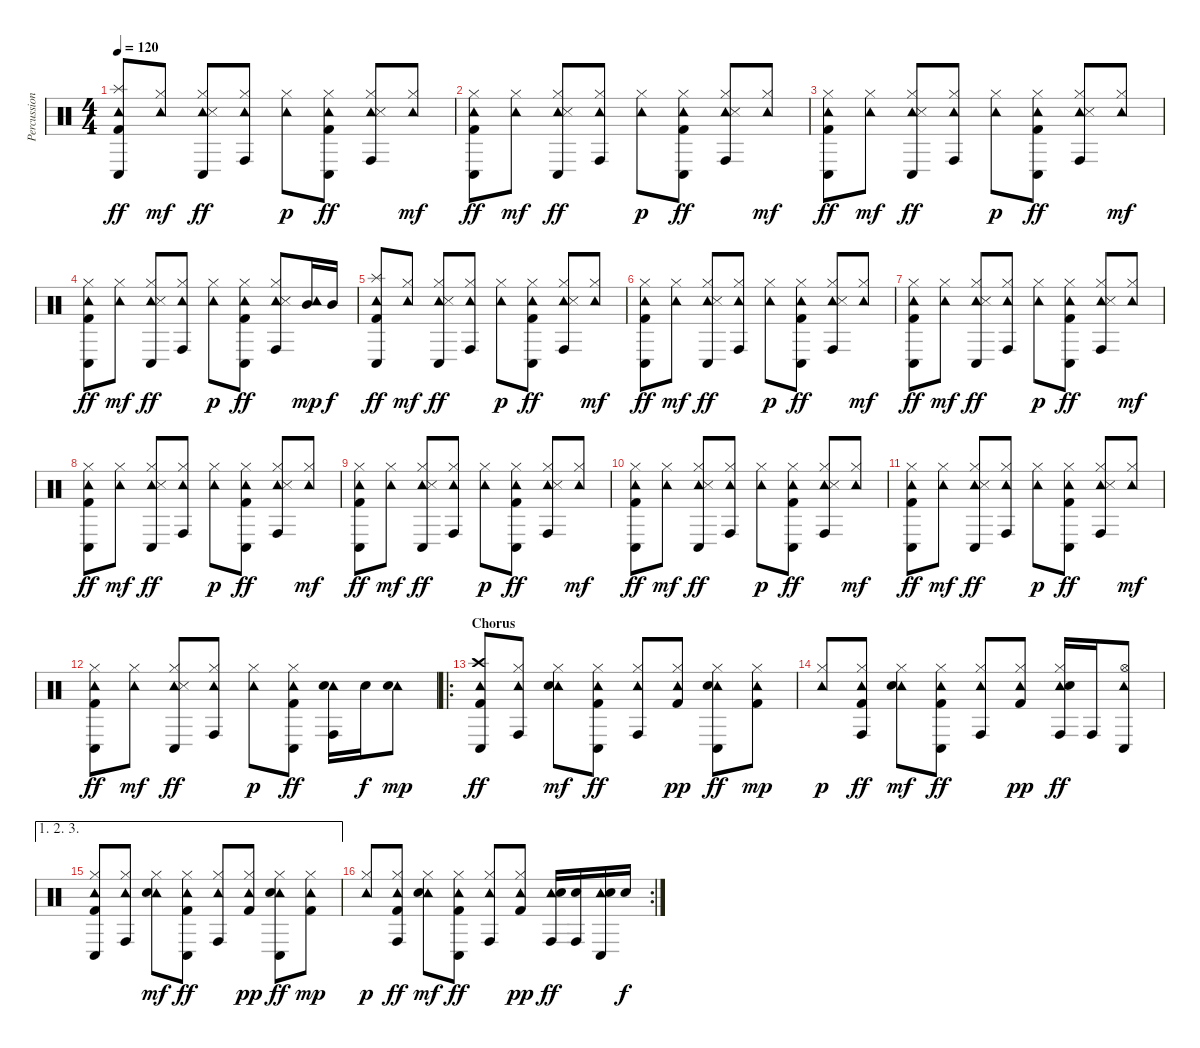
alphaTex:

\track ("Percussion" "Percussion") {instrument percussion}
\staff {score}
\articulation defaults
\ts (4 4)
\tempo 120
\clef neutral
\ks c
("Kick (hit) 2" "Splash (hit)" "Tambourine (hit)" "Conga low (hit)").8{dy ff} ("Tambourine (hit)" "Hi-Hat (closed)").8{dy mf} ("Tambourine (hit)" "Snare (side stick) 3" "Hi-Hat (closed)" "Conga low (hit)").8{dy ff} ("Tambourine (hit)" "Hi-Hat (closed)" "Conga high (hit)").8 ("Tambourine (hit)" "Hi-Hat (closed)").8{dy p} ("Kick (hit) 2" "Tambourine (hit)" "Hi-Hat (closed)" "Conga low (hit)").8{dy ff} ("Tambourine (hit)" "Snare (side stick) 3" "Hi-Hat (closed)" "Conga high (hit)").8 ("Tambourine (hit)" "Hi-Hat (closed)").8{dy mf} |
("Kick (hit) 2" "Tambourine (hit)" "Hi-Hat (closed)" "Conga low (hit)").8{dy ff} ("Tambourine (hit)" "Hi-Hat (closed)").8{dy mf} ("Tambourine (hit)" "Snare (side stick) 3" "Hi-Hat (closed)" "Conga low (hit)").8{dy ff} ("Tambourine (hit)" "Hi-Hat (closed)" "Conga high (hit)").8 ("Tambourine (hit)" "Hi-Hat (closed)").8{dy p} ("Kick (hit) 2" "Tambourine (hit)" "Hi-Hat (closed)" "Conga low (hit)").8{dy ff} ("Tambourine (hit)" "Snare (side stick) 3" "Hi-Hat (closed)" "Conga high (hit)").8 ("Tambourine (hit)" "Hi-Hat (closed)").8{dy mf} |
("Kick (hit) 2" "Tambourine (hit)" "Hi-Hat (closed)" "Conga low (hit)").8{dy ff} ("Tambourine (hit)" "Hi-Hat (closed)").8{dy mf} ("Tambourine (hit)" "Snare (side stick) 3" "Hi-Hat (closed)" "Conga low (hit)").8{dy ff} ("Tambourine (hit)" "Hi-Hat (closed)" "Conga high (hit)").8 ("Tambourine (hit)" "Hi-Hat (closed)").8{dy p} ("Kick (hit) 2" "Tambourine (hit)" "Hi-Hat (closed)" "Conga low (hit)").8{dy ff} ("Tambourine (hit)" "Snare (side stick) 3" "Hi-Hat (closed)" "Conga high (hit)").8 ("Tambourine (hit)" "Hi-Hat (closed)").8{dy mf} |
("Kick (hit) 2" "Tambourine (hit)" "Hi-Hat (closed)" "Conga low (hit)").8{dy ff} ("Tambourine (hit)" "Hi-Hat (closed)").8{dy mf} ("Tambourine (hit)" "Snare (side stick) 3" "Hi-Hat (closed)" "Conga low (hit)").8{dy ff} ("Tambourine (hit)" "Hi-Hat (closed)" "Conga high (hit)").8 ("Tambourine (hit)" "Hi-Hat (closed)").8{dy p} ("Kick (hit) 2" "Tambourine (hit)" "Hi-Hat (closed)" "Conga low (hit)").8{dy ff} ("Tambourine (hit)" "Snare (side stick) 3" "Hi-Hat (closed)" "Conga high (hit)").8 ("Tambourine (hit)" "Mid Tom (hit)").16{dy mp} "Mid Tom (hit)".16{dy f} |
("Kick (hit) 2" "Splash (hit)" "Tambourine (hit)" "Conga low (hit)").8{dy ff} ("Tambourine (hit)" "Hi-Hat (closed)").8{dy mf} ("Tambourine (hit)" "Snare (side stick) 3" "Hi-Hat (closed)" "Conga low (hit)").8{dy ff} ("Tambourine (hit)" "Hi-Hat (closed)" "Conga high (hit)").8 ("Tambourine (hit)" "Hi-Hat (closed)").8{dy p} ("Kick (hit) 2" "Tambourine (hit)" "Hi-Hat (closed)" "Conga low (hit)").8{dy ff} ("Tambourine (hit)" "Snare (side stick) 3" "Hi-Hat (closed)" "Conga high (hit)").8 ("Tambourine (hit)" "Hi-Hat (closed)").8{dy mf} |
("Kick (hit) 2" "Tambourine (hit)" "Hi-Hat (closed)" "Conga low (hit)").8{dy ff} ("Tambourine (hit)" "Hi-Hat (closed)").8{dy mf} ("Tambourine (hit)" "Snare (side stick) 3" "Hi-Hat (closed)" "Conga low (hit)").8{dy ff} ("Tambourine (hit)" "Hi-Hat (closed)" "Conga high (hit)").8 ("Tambourine (hit)" "Hi-Hat (closed)").8{dy p} ("Kick (hit) 2" "Tambourine (hit)" "Hi-Hat (closed)" "Conga low (hit)").8{dy ff} ("Tambourine (hit)" "Snare (side stick) 3" "Hi-Hat (closed)" "Conga high (hit)").8 ("Tambourine (hit)" "Hi-Hat (closed)").8{dy mf} |
("Kick (hit) 2" "Tambourine (hit)" "Hi-Hat (closed)" "Conga low (hit)").8{dy ff} ("Tambourine (hit)" "Hi-Hat (closed)").8{dy mf} ("Tambourine (hit)" "Snare (side stick) 3" "Hi-Hat (closed)" "Conga low (hit)").8{dy ff} ("Tambourine (hit)" "Hi-Hat (closed)" "Conga high (hit)").8 ("Tambourine (hit)" "Hi-Hat (closed)").8{dy p} ("Kick (hit) 2" "Tambourine (hit)" "Hi-Hat (closed)" "Conga low (hit)").8{dy ff} ("Tambourine (hit)" "Snare (side stick) 3" "Hi-Hat (closed)" "Conga high (hit)").8 ("Tambourine (hit)" "Hi-Hat (closed)").8{dy mf} |
("Kick (hit) 2" "Tambourine (hit)" "Hi-Hat (closed)" "Conga low (hit)").8{dy ff} ("Tambourine (hit)" "Hi-Hat (closed)").8{dy mf} ("Tambourine (hit)" "Snare (side stick) 3" "Hi-Hat (closed)" "Conga low (hit)").8{dy ff} ("Tambourine (hit)" "Hi-Hat (closed)" "Conga high (hit)").8 ("Tambourine (hit)" "Hi-Hat (closed)").8{dy p} ("Kick (hit) 2" "Tambourine (hit)" "Hi-Hat (closed)" "Conga low (hit)").8{dy ff} ("Tambourine (hit)" "Snare (side stick) 3" "Hi-Hat (closed)" "Conga high (hit)").8 ("Tambourine (hit)" "Hi-Hat (closed)").8{dy mf} |
("Kick (hit) 2" "Tambourine (hit)" "Hi-Hat (closed)" "Conga low (hit)").8{dy ff} ("Tambourine (hit)" "Hi-Hat (closed)").8{dy mf} ("Tambourine (hit)" "Snare (side stick) 3" "Hi-Hat (closed)" "Conga low (hit)").8{dy ff} ("Tambourine (hit)" "Hi-Hat (closed)" "Conga high (hit)").8 ("Tambourine (hit)" "Hi-Hat (closed)").8{dy p} ("Kick (hit) 2" "Tambourine (hit)" "Hi-Hat (closed)" "Conga low (hit)").8{dy ff} ("Tambourine (hit)" "Snare (side stick) 3" "Hi-Hat (closed)" "Conga high (hit)").8 ("Tambourine (hit)" "Hi-Hat (closed)").8{dy mf} |
("Kick (hit) 2" "Tambourine (hit)" "Hi-Hat (closed)" "Conga low (hit)").8{dy ff} ("Tambourine (hit)" "Hi-Hat (closed)").8{dy mf} ("Tambourine (hit)" "Snare (side stick) 3" "Hi-Hat (closed)" "Conga low (hit)").8{dy ff} ("Tambourine (hit)" "Hi-Hat (closed)" "Conga high (hit)").8 ("Tambourine (hit)" "Hi-Hat (closed)").8{dy p} ("Kick (hit) 2" "Tambourine (hit)" "Hi-Hat (closed)" "Conga low (hit)").8{dy ff} ("Tambourine (hit)" "Snare (side stick) 3" "Hi-Hat (closed)" "Conga high (hit)").8 ("Tambourine (hit)" "Hi-Hat (closed)").8{dy mf} |
("Kick (hit) 2" "Tambourine (hit)" "Hi-Hat (closed)" "Conga low (hit)").8{dy ff} ("Tambourine (hit)" "Hi-Hat (closed)").8{dy mf} ("Tambourine (hit)" "Snare (side stick) 3" "Hi-Hat (closed)" "Conga low (hit)").8{dy ff} ("Tambourine (hit)" "Hi-Hat (closed)" "Conga high (hit)").8 ("Tambourine (hit)" "Hi-Hat (closed)").8{dy p} ("Kick (hit) 2" "Tambourine (hit)" "Hi-Hat (closed)" "Conga low (hit)").8{dy ff} ("Tambourine (hit)" "Snare (side stick) 3" "Hi-Hat (closed)" "Conga high (hit)").8 ("Tambourine (hit)" "Hi-Hat (closed)").8{dy mf} |
("Kick (hit) 2" "Tambourine (hit)" "Hi-Hat (closed)" "Conga low (hit)").8{dy ff} ("Tambourine (hit)" "Hi-Hat (closed)").8{dy mf} ("Tambourine (hit)" "Snare (side stick) 3" "Hi-Hat (closed)" "Conga low (hit)").8{dy ff} ("Tambourine (hit)" "Hi-Hat (closed)" "Conga high (hit)").8 ("Tambourine (hit)" "Hi-Hat (closed)").8{dy p} ("Kick (hit) 2" "Tambourine (hit)" "Hi-Hat (closed)" "Conga low (hit)").8{dy ff} ("Tambourine (hit)" "Snare (hit) 2" "Conga high (hit)").16 "Snare (hit) 2".16{dy f} ("Tambourine (hit)" "Snare (hit) 2").8{dy mp} |
\ro
\section ("" "Chorus")
("Kick (hit) 2" "Crash high (hit)" "Tambourine (hit)" "Conga low (hit)").8{dy ff} ("Tambourine (hit)" "Hi-Hat (closed)" "Conga high (hit)").8 ("Tambourine (hit)" "Snare (hit) 2" "Hi-Hat (closed)").8{dy mf} ("Kick (hit) 2" "Tambourine (hit)" "Hi-Hat (closed)" "Conga low (hit)").8{dy ff} ("Tambourine (hit)" "Hi-Hat (closed)" "Conga high (hit)").8 ("Kick (hit) 2" "Tambourine (hit)" "Hi-Hat (closed)").8{dy pp} ("Tambourine (hit)" "Snare (hit) 2" "Hi-Hat (closed)" "Conga low (hit)").8{dy ff} ("Kick (hit) 2" "Tambourine (hit)" "Hi-Hat (closed)").8{dy mp} |
("Tambourine (hit)" "Hi-Hat (closed)").8{dy p} ("Kick (hit) 2" "Tambourine (hit)" "Hi-Hat (closed)" "Conga high (hit)").8{dy ff} ("Tambourine (hit)" "Snare (hit) 2" "Hi-Hat (closed)").8{dy mf} ("Kick (hit) 2" "Tambourine (hit)" "Hi-Hat (closed)" "Conga low (hit)").8{dy ff} ("Tambourine (hit)" "Hi-Hat (closed)" "Conga high (hit)").8 ("Kick (hit) 2" "Tambourine (hit)" "Hi-Hat (closed)").8{dy pp} ("Tambourine (hit)" "Snare (hit) 2" "Hi-Hat (closed)" "Conga high (hit)").16{dy ff} "Conga high (hit)".16 ("Tambourine (hit)" "Hi-Hat (open)" "Conga low (hit)").8 |
\ae (1 2 3)
("Kick (hit) 2" "Tambourine (hit)" "Hi-Hat (closed)" "Conga low (hit)").8 ("Tambourine (hit)" "Hi-Hat (closed)" "Conga high (hit)").8 ("Tambourine (hit)" "Snare (hit) 2" "Hi-Hat (closed)").8{dy mf} ("Kick (hit) 2" "Tambourine (hit)" "Hi-Hat (closed)" "Conga low (hit)").8{dy ff} ("Tambourine (hit)" "Hi-Hat (closed)" "Conga high (hit)").8 ("Kick (hit) 2" "Tambourine (hit)" "Hi-Hat (closed)").8{dy pp} ("Tambourine (hit)" "Snare (hit) 2" "Hi-Hat (closed)" "Conga low (hit)").8{dy ff} ("Kick (hit) 2" "Tambourine (hit)" "Hi-Hat (closed)").8{dy mp} |
\rc 2
("Tambourine (hit)" "Hi-Hat (closed)").8{dy p} ("Kick (hit) 2" "Tambourine (hit)" "Hi-Hat (closed)" "Conga high (hit)").8{dy ff} ("Tambourine (hit)" "Snare (hit) 2" "Hi-Hat (closed)").8{dy mf} ("Kick (hit) 2" "Tambourine (hit)" "Hi-Hat (closed)" "Conga low (hit)").8{dy ff} ("Tambourine (hit)" "Hi-Hat (closed)" "Conga high (hit)").8 ("Kick (hit) 2" "Tambourine (hit)" "Hi-Hat (closed)").8{dy pp} ("Tambourine (hit)" "Snare (hit) 2" "Conga high (hit)").16{dy ff} ("Snare (hit) 2" "Conga high (hit)").16 ("Tambourine (hit)" "Snare (hit) 2" "Conga low (hit)").16 "Snare (hit) 2".16{dy f}
